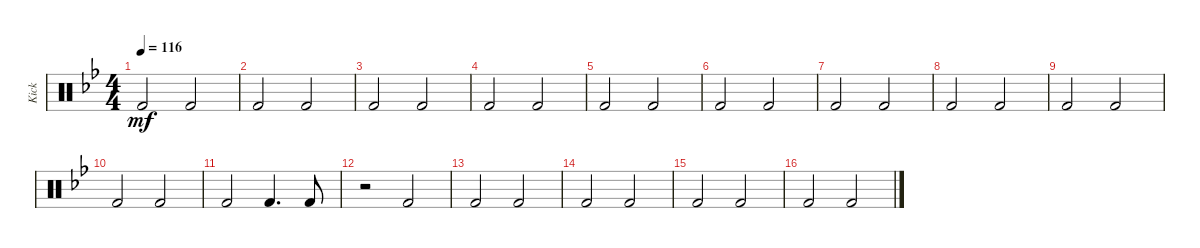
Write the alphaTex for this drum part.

\track ("Kick" "Kick") {instrument percussion}
\staff {score}
\articulation defaults
\ts (4 4)
\tempo 116
\clef neutral
\ks bb "Kick (hit) 2".2{dy mf} "Kick (hit) 2".2
|
"Kick (hit) 2".2 "Kick (hit) 2".2 |
"Kick (hit) 2".2 "Kick (hit) 2".2 |
"Kick (hit) 2".2 "Kick (hit) 2".2 |
"Kick (hit) 2".2 "Kick (hit) 2".2 |
"Kick (hit) 2".2 "Kick (hit) 2".2 |
"Kick (hit) 2".2 "Kick (hit) 2".2 |
"Kick (hit) 2".2 "Kick (hit) 2".2 |
"Kick (hit) 2".2 "Kick (hit) 2".2 |
"Kick (hit) 2".2 "Kick (hit) 2".2 |
"Kick (hit) 2".2 "Kick (hit) 2".4{d} "Kick (hit) 2".8 |
r.2 "Kick (hit) 2".2 |
"Kick (hit) 2".2 "Kick (hit) 2".2 |
"Kick (hit) 2".2 "Kick (hit) 2".2 |
"Kick (hit) 2".2 "Kick (hit) 2".2 |
"Kick (hit) 2".2 "Kick (hit) 2".2
